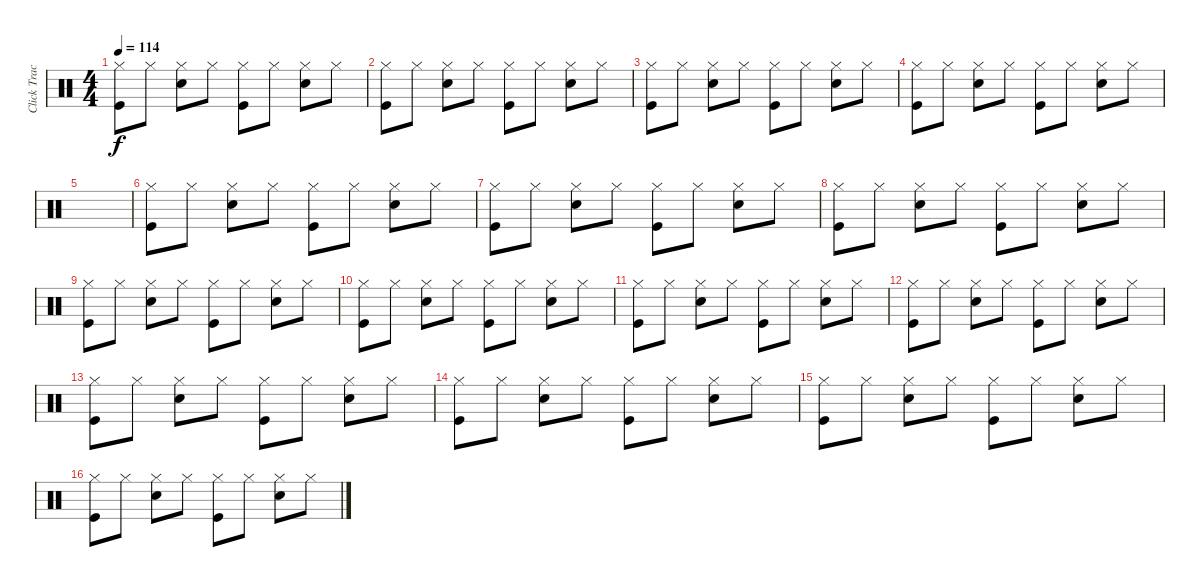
\track ("Click Track" "Click Trac") {instrument percussion}
\staff {score}
\articulation defaults
\ts (4 4)
\tempo 114
\clef neutral
\ks c
("Hi-Hat (closed)" "Kick (hit)").8{dy f} "Hi-Hat (closed)".8 ("Hi-Hat (closed)" "Snare (hit) 2").8 "Hi-Hat (closed)".8 ("Hi-Hat (closed)" "Kick (hit)").8 "Hi-Hat (closed)".8 ("Hi-Hat (closed)" "Snare (hit) 2").8 "Hi-Hat (closed)".8 |
("Hi-Hat (closed)" "Kick (hit)").8 "Hi-Hat (closed)".8 ("Hi-Hat (closed)" "Snare (hit) 2").8 "Hi-Hat (closed)".8 ("Hi-Hat (closed)" "Kick (hit)").8 "Hi-Hat (closed)".8 ("Hi-Hat (closed)" "Snare (hit) 2").8 "Hi-Hat (closed)".8 |
("Hi-Hat (closed)" "Kick (hit)").8 "Hi-Hat (closed)".8 ("Hi-Hat (closed)" "Snare (hit) 2").8 "Hi-Hat (closed)".8 ("Hi-Hat (closed)" "Kick (hit)").8 "Hi-Hat (closed)".8 ("Hi-Hat (closed)" "Snare (hit) 2").8 "Hi-Hat (closed)".8 |
("Hi-Hat (closed)" "Kick (hit)").8 "Hi-Hat (closed)".8 ("Hi-Hat (closed)" "Snare (hit) 2").8 "Hi-Hat (closed)".8 ("Hi-Hat (closed)" "Kick (hit)").8 "Hi-Hat (closed)".8 ("Hi-Hat (closed)" "Snare (hit) 2").8 "Hi-Hat (closed)".8 |
|
("Hi-Hat (closed)" "Kick (hit)").8 "Hi-Hat (closed)".8 ("Hi-Hat (closed)" "Snare (hit) 2").8 "Hi-Hat (closed)".8 ("Hi-Hat (closed)" "Kick (hit)").8 "Hi-Hat (closed)".8 ("Hi-Hat (closed)" "Snare (hit) 2").8 "Hi-Hat (closed)".8 |
("Hi-Hat (closed)" "Kick (hit)").8 "Hi-Hat (closed)".8 ("Hi-Hat (closed)" "Snare (hit) 2").8 "Hi-Hat (closed)".8 ("Hi-Hat (closed)" "Kick (hit)").8 "Hi-Hat (closed)".8 ("Hi-Hat (closed)" "Snare (hit) 2").8 "Hi-Hat (closed)".8 |
("Hi-Hat (closed)" "Kick (hit)").8 "Hi-Hat (closed)".8 ("Hi-Hat (closed)" "Snare (hit) 2").8 "Hi-Hat (closed)".8 ("Hi-Hat (closed)" "Kick (hit)").8 "Hi-Hat (closed)".8 ("Hi-Hat (closed)" "Snare (hit) 2").8 "Hi-Hat (closed)".8 |
("Hi-Hat (closed)" "Kick (hit)").8 "Hi-Hat (closed)".8 ("Hi-Hat (closed)" "Snare (hit) 2").8 "Hi-Hat (closed)".8 ("Hi-Hat (closed)" "Kick (hit)").8 "Hi-Hat (closed)".8 ("Hi-Hat (closed)" "Snare (hit) 2").8 "Hi-Hat (closed)".8 |
("Hi-Hat (closed)" "Kick (hit)").8 "Hi-Hat (closed)".8 ("Hi-Hat (closed)" "Snare (hit) 2").8 "Hi-Hat (closed)".8 ("Hi-Hat (closed)" "Kick (hit)").8 "Hi-Hat (closed)".8 ("Hi-Hat (closed)" "Snare (hit) 2").8 "Hi-Hat (closed)".8 |
("Hi-Hat (closed)" "Kick (hit)").8 "Hi-Hat (closed)".8 ("Hi-Hat (closed)" "Snare (hit) 2").8 "Hi-Hat (closed)".8 ("Hi-Hat (closed)" "Kick (hit)").8 "Hi-Hat (closed)".8 ("Hi-Hat (closed)" "Snare (hit) 2").8 "Hi-Hat (closed)".8 |
("Hi-Hat (closed)" "Kick (hit)").8 "Hi-Hat (closed)".8 ("Hi-Hat (closed)" "Snare (hit) 2").8 "Hi-Hat (closed)".8 ("Hi-Hat (closed)" "Kick (hit)").8 "Hi-Hat (closed)".8 ("Hi-Hat (closed)" "Snare (hit) 2").8 "Hi-Hat (closed)".8 |
("Hi-Hat (closed)" "Kick (hit)").8 "Hi-Hat (closed)".8 ("Hi-Hat (closed)" "Snare (hit) 2").8 "Hi-Hat (closed)".8 ("Hi-Hat (closed)" "Kick (hit)").8 "Hi-Hat (closed)".8 ("Hi-Hat (closed)" "Snare (hit) 2").8 "Hi-Hat (closed)".8 |
("Hi-Hat (closed)" "Kick (hit)").8 "Hi-Hat (closed)".8 ("Hi-Hat (closed)" "Snare (hit) 2").8 "Hi-Hat (closed)".8 ("Hi-Hat (closed)" "Kick (hit)").8 "Hi-Hat (closed)".8 ("Hi-Hat (closed)" "Snare (hit) 2").8 "Hi-Hat (closed)".8 |
("Hi-Hat (closed)" "Kick (hit)").8 "Hi-Hat (closed)".8 ("Hi-Hat (closed)" "Snare (hit) 2").8 "Hi-Hat (closed)".8 ("Hi-Hat (closed)" "Kick (hit)").8 "Hi-Hat (closed)".8 ("Hi-Hat (closed)" "Snare (hit) 2").8 "Hi-Hat (closed)".8 |
("Hi-Hat (closed)" "Kick (hit)").8 "Hi-Hat (closed)".8 ("Hi-Hat (closed)" "Snare (hit) 2").8 "Hi-Hat (closed)".8 ("Hi-Hat (closed)" "Kick (hit)").8 "Hi-Hat (closed)".8 ("Hi-Hat (closed)" "Snare (hit) 2").8 "Hi-Hat (closed)".8
